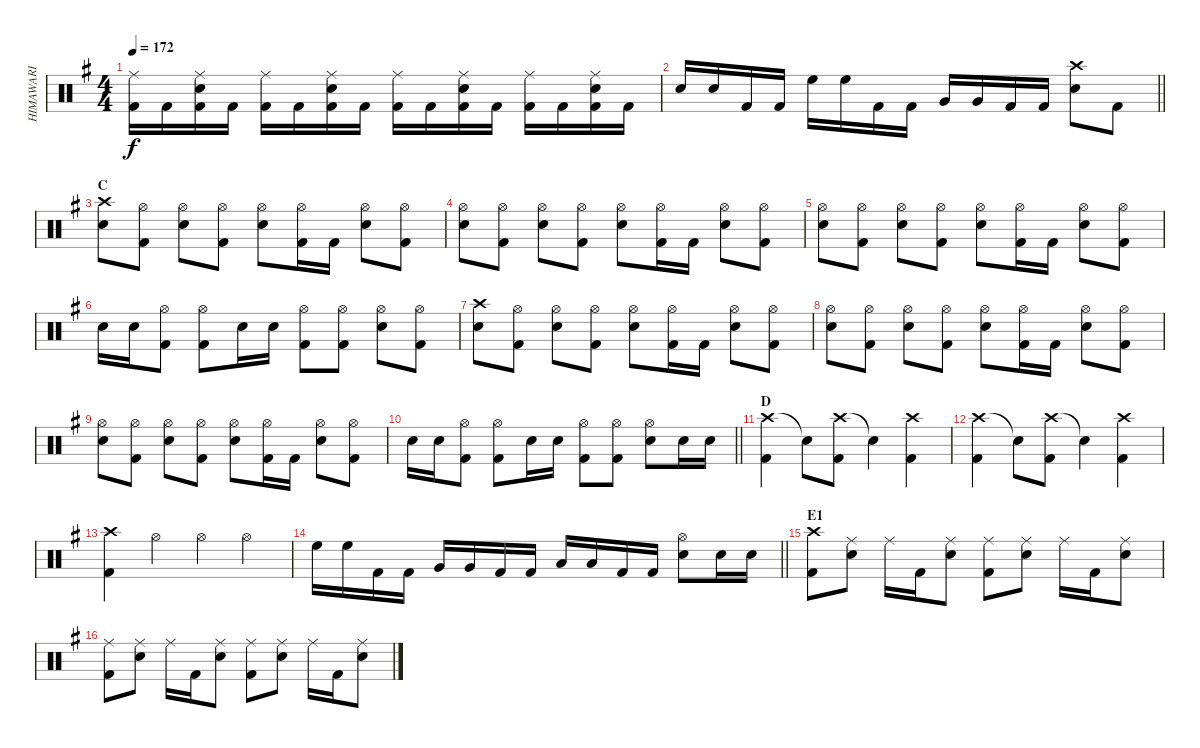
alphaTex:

\track ("HIMAWARI" "HIMAWARI") {instrument percussion}
\staff {score}
\articulation defaults
\ts (4 4)
\tempo 172
\clef neutral
\ks g
("Ride (middle)" "Kick (hit) 2").16{dy f} "Kick (hit) 2".16 ("Ride (middle)" "Kick (hit) 2" "Snare (hit) 2").16 "Kick (hit) 2".16 ("Ride (middle)" "Kick (hit) 2").16 "Kick (hit) 2".16 ("Ride (middle)" "Kick (hit) 2" "Snare (hit) 2").16 "Kick (hit) 2".16 ("Ride (middle)" "Kick (hit) 2").16 "Kick (hit) 2".16 ("Ride (middle)" "Kick (hit) 2" "Snare (hit) 2").16 "Kick (hit) 2".16 ("Ride (middle)" "Kick (hit) 2").16 "Kick (hit) 2".16 ("Ride (middle)" "Kick (hit) 2" "Snare (hit) 2").16 "Kick (hit) 2".16 |
\barLineRight lightlight "Snare (hit) 2".16 "Snare (hit) 2".16 "Kick (hit) 2".16 "Kick (hit) 2".16 "High Floor Tom (hit)".16 "High Floor Tom (hit)".16 "Kick (hit) 2".16 "Kick (hit) 2".16 "Very Low Tom (hit)".16 "Very Low Tom (hit)".16 "Kick (hit) 2".16 "Kick (hit) 2".16
("Crash high (hit)" "Snare (hit) 2").8 "Kick (hit) 2".8 |
\section ("" "C")
("Crash high (hit)" "Snare (hit) 2").8 ("Hi-Hat (open)" "Kick (hit) 2").8 ("Hi-Hat (open)" "Snare (hit) 2").8 ("Hi-Hat (open)" "Kick (hit) 2").8 ("Hi-Hat (open)" "Snare (hit) 2").8 ("Hi-Hat (open)" "Kick (hit) 2").16 "Kick (hit) 2".16 ("Hi-Hat (open)" "Snare (hit) 2").8 ("Hi-Hat (open)" "Kick (hit) 2").8 |
("Hi-Hat (open)" "Snare (hit) 2").8 ("Hi-Hat (open)" "Kick (hit) 2").8 ("Hi-Hat (open)" "Snare (hit) 2").8 ("Hi-Hat (open)" "Kick (hit) 2").8 ("Hi-Hat (open)" "Snare (hit) 2").8 ("Hi-Hat (open)" "Kick (hit) 2").16 "Kick (hit) 2".16 ("Hi-Hat (open)" "Snare (hit) 2").8 ("Hi-Hat (open)" "Kick (hit) 2").8 |
("Hi-Hat (open)" "Snare (hit) 2").8 ("Hi-Hat (open)" "Kick (hit) 2").8 ("Hi-Hat (open)" "Snare (hit) 2").8 ("Hi-Hat (open)" "Kick (hit) 2").8 ("Hi-Hat (open)" "Snare (hit) 2").8 ("Hi-Hat (open)" "Kick (hit) 2").16 "Kick (hit) 2".16 ("Hi-Hat (open)" "Snare (hit) 2").8 ("Hi-Hat (open)" "Kick (hit) 2").8 |
"Snare (hit) 2".16 "Snare (hit) 2".16 ("Hi-Hat (open)" "Kick (hit) 2").8 ("Hi-Hat (open)" "Kick (hit) 2").8 "Snare (hit) 2".16 "Snare (hit) 2".16 ("Hi-Hat (open)" "Kick (hit) 2").8 ("Hi-Hat (open)" "Kick (hit) 2").8 ("Hi-Hat (open)" "Snare (hit) 2").8 ("Hi-Hat (open)" "Kick (hit) 2").8 |
("Crash high (hit)" "Snare (hit) 2").8 ("Hi-Hat (open)" "Kick (hit) 2").8 ("Hi-Hat (open)" "Snare (hit) 2").8 ("Hi-Hat (open)" "Kick (hit) 2").8 ("Hi-Hat (open)" "Snare (hit) 2").8 ("Hi-Hat (open)" "Kick (hit) 2").16 "Kick (hit) 2".16 ("Hi-Hat (open)" "Snare (hit) 2").8 ("Hi-Hat (open)" "Kick (hit) 2").8 |
("Hi-Hat (open)" "Snare (hit) 2").8 ("Hi-Hat (open)" "Kick (hit) 2").8 ("Hi-Hat (open)" "Snare (hit) 2").8 ("Hi-Hat (open)" "Kick (hit) 2").8 ("Hi-Hat (open)" "Snare (hit) 2").8 ("Hi-Hat (open)" "Kick (hit) 2").16 "Kick (hit) 2".16 ("Hi-Hat (open)" "Snare (hit) 2").8 ("Hi-Hat (open)" "Kick (hit) 2").8 |
("Hi-Hat (open)" "Snare (hit) 2").8 ("Hi-Hat (open)" "Kick (hit) 2").8 ("Hi-Hat (open)" "Snare (hit) 2").8 ("Hi-Hat (open)" "Kick (hit) 2").8 ("Hi-Hat (open)" "Snare (hit) 2").8 ("Hi-Hat (open)" "Kick (hit) 2").16 "Kick (hit) 2".16 ("Hi-Hat (open)" "Snare (hit) 2").8 ("Hi-Hat (open)" "Kick (hit) 2").8 |
\barLineRight lightlight "Snare (hit) 2".16 "Snare (hit) 2".16
("Hi-Hat (open)" "Kick (hit) 2").8 ("Hi-Hat (open)" "Kick (hit) 2").8 "Snare (hit) 2".16 "Snare (hit) 2".16 ("Hi-Hat (open)" "Kick (hit) 2").8 ("Hi-Hat (open)" "Kick (hit) 2").8 ("Hi-Hat (open)" "Snare (hit) 2").8 "Snare (hit) 2".16 "Snare (hit) 2".16 |
\section ("" "D")
("Crash high (hit)" "Kick (hit) 2").4 "Snare (hit)"{t}.8 ("Crash high (hit)" "Kick (hit) 2").8 "Snare (hit)"{t}.4 ("Crash high (hit)" "Kick (hit) 2").4 |
("Crash high (hit)" "Kick (hit) 2").4 "Snare (hit)"{t}.8 ("Crash high (hit)" "Kick (hit) 2").8 "Snare (hit)"{t}.4 ("Crash high (hit)" "Kick (hit) 2").4 |
("Crash high (hit)" "Kick (hit) 2").4 "Hi-Hat (open)".4 "Hi-Hat (open)".4 "Hi-Hat (open)".4 |
\barLineRight lightlight "High Floor Tom (hit)".16 "High Floor Tom (hit)".16 "Kick (hit) 2".16 "Kick (hit) 2".16 "Very Low Tom (hit)".16 "Very Low Tom (hit)".16 "Kick (hit) 2".16 "Kick (hit) 2".16 "Low Tom (hit)".16 "Low Tom (hit)".16 "Kick (hit) 2".16 "Kick (hit) 2".16
("Hi-Hat (open)" "Snare (hit) 2").8 "Snare (hit) 2".16 "Snare (hit) 2".16 |
\section ("" "E1")
("Crash high (hit)" "Kick (hit) 2").8 ("Ride (middle)" "Snare (hit) 2").8 "Ride (middle)".16 "Kick (hit) 2".16 ("Ride (middle)" "Snare (hit) 2").8 ("Ride (middle)" "Kick (hit) 2").8 ("Ride (middle)" "Snare (hit) 2").8 "Ride (middle)".16 "Kick (hit) 2".16 ("Ride (middle)" "Snare (hit) 2").8 |
("Ride (middle)" "Kick (hit) 2").8 ("Ride (middle)" "Snare (hit) 2").8 "Ride (middle)".16 "Kick (hit) 2".16 ("Ride (middle)" "Snare (hit) 2").8 ("Ride (middle)" "Kick (hit) 2").8 ("Ride (middle)" "Snare (hit) 2").8 "Ride (middle)".16 "Kick (hit) 2".16 ("Ride (middle)" "Snare (hit) 2").8
